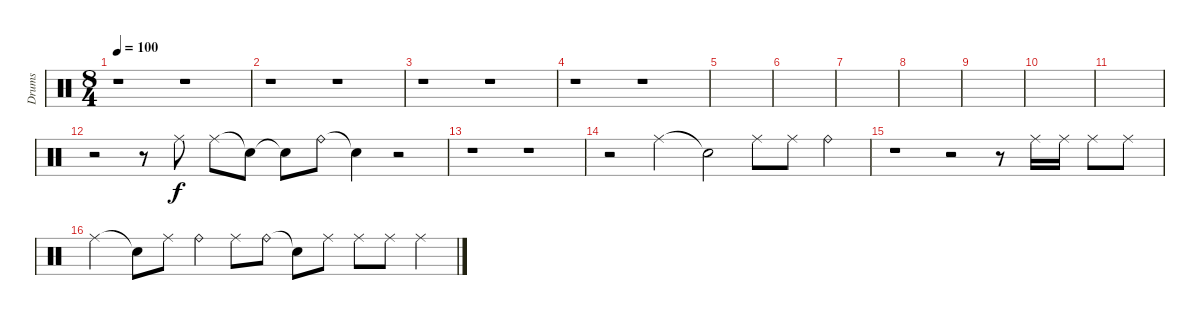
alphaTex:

\track ("Drums" "Drums") {instrument percussion}
\staff {score}
\articulation defaults
\ts (8 4)
\tempo 100
\clef neutral
\ks c
r.1{dy f} r.1 |
r.1 r.1 |
r.1 r.1 |
r.1 r.1 |
|
|
|
|
|
|
|
r.2 r.8 "Ride (middle)".8 "Ride (middle)".8 "Snare (hit)"{t}.8 "Snare (hit)"{t}.8 "Ride (bell)".8 "Snare (hit)"{t}.4 r.2 |
r.1 r.1 |
r.2 "Ride (middle)".2 "Snare (hit)"{t}.2 "Ride (middle)".8 "Ride (middle)".8 "Ride (bell)".4 |
r.1 r.2 r.8 "Ride (middle)".16 "Ride (middle)".16 "Ride (middle)".8 "Ride (middle)".8 |
"Ride (middle)".2 "Snare (hit)"{t}.8 "Ride (middle)".8 "Ride (bell)".4 "Ride (middle)".8 "Ride (bell)".8 "Snare (hit)"{t}.8 "Ride (middle)".8 "Ride (middle)".8 "Ride (middle)".8 "Ride (middle)".4
